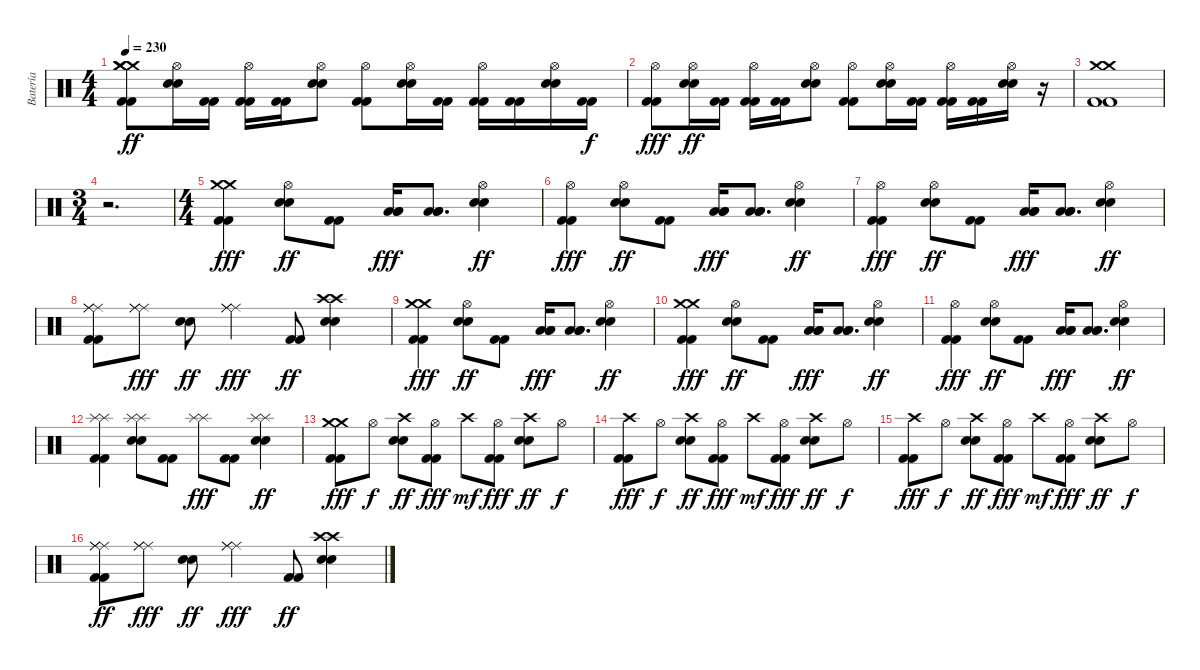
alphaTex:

\track ("Batería" "Batería") {instrument percussion}
\staff {score}
\articulation defaults
\ts (4 4)
\tempo 230
\clef neutral
\ks c
("Crash medium (hit)" "Crash medium (hit)" "Crash medium (hit)" "Kick (hit) 2" "Kick (hit) 2").8{dy ff} ("Hi-Hat (open)" "Electric Snare (hit)" "Electric Snare (hit)").16 ("Kick (hit) 2" "Kick (hit) 2").16 ("Hi-Hat (open)" "Kick (hit) 2" "Kick (hit) 2").16 ("Kick (hit) 2" "Kick (hit) 2").16 ("Hi-Hat (open)" "Electric Snare (hit)" "Electric Snare (hit)").8 ("Hi-Hat (open)" "Kick (hit) 2" "Kick (hit) 2").8 ("Hi-Hat (open)" "Electric Snare (hit)" "Electric Snare (hit)").16 ("Kick (hit) 2" "Kick (hit) 2").16 ("Hi-Hat (open)" "Kick (hit) 2" "Kick (hit) 2").16 ("Kick (hit) 2" "Kick (hit) 2").16 ("Hi-Hat (open)" "Electric Snare (hit)" "Electric Snare (hit)").16 ("Kick (hit) 2" "Kick (hit) 2").16{dy f} |
("Hi-Hat (open)" "Kick (hit) 2" "Kick (hit) 2").8{dy fff} ("Hi-Hat (open)" "Electric Snare (hit)" "Electric Snare (hit)").16{dy ff} ("Kick (hit) 2" "Kick (hit) 2").16 ("Hi-Hat (open)" "Kick (hit) 2" "Kick (hit) 2").16 ("Kick (hit) 2" "Kick (hit) 2").16 ("Hi-Hat (open)" "Electric Snare (hit)" "Electric Snare (hit)").8 ("Hi-Hat (open)" "Kick (hit) 2" "Kick (hit) 2").8 ("Hi-Hat (open)" "Electric Snare (hit)" "Electric Snare (hit)").16 ("Kick (hit) 2" "Kick (hit) 2").16 ("Hi-Hat (open)" "Kick (hit) 2" "Kick (hit) 2").16 ("Kick (hit) 2" "Kick (hit) 2").16 ("Hi-Hat (open)" "Electric Snare (hit)" "Electric Snare (hit)").16 r.16 |
("Crash medium (hit)" "Crash medium (hit)" "Kick (hit) 2" "Kick (hit) 2").1 |
\ts (3 4)
r.2{d} |
\ts (4 4)
("Crash medium (hit)" "Crash medium (hit)" "Kick (hit) 2" "Kick (hit) 2").4{dy fff} ("Hi-Hat (open)" "Electric Snare (hit)" "Electric Snare (hit)").8{dy ff} ("Kick (hit) 2" "Kick (hit) 2").8 ("Low Tom (hit)" "Low Floor Tom (hit)" "Low Floor Tom (hit)").16{dy fff} ("Low Tom (hit)" "Low Floor Tom (hit)" "Low Floor Tom (hit)").8{d} ("Hi-Hat (open)" "Electric Snare (hit)" "Electric Snare (hit)").4{dy ff} |
("Hi-Hat (open)" "Kick (hit) 2" "Kick (hit) 2").4{dy fff} ("Hi-Hat (open)" "Electric Snare (hit)" "Electric Snare (hit)").8{dy ff} ("Kick (hit) 2" "Kick (hit) 2").8 ("Low Tom (hit)" "Low Floor Tom (hit)" "Low Floor Tom (hit)").16{dy fff} ("Low Tom (hit)" "Low Floor Tom (hit)" "Low Floor Tom (hit)").8{d} ("Hi-Hat (open)" "Electric Snare (hit)" "Electric Snare (hit)").4{dy ff} |
("Hi-Hat (open)" "Kick (hit) 2" "Kick (hit) 2").4{dy fff} ("Hi-Hat (open)" "Electric Snare (hit)" "Electric Snare (hit)").8{dy ff} ("Kick (hit) 2" "Kick (hit) 2").8 ("Low Tom (hit)" "Low Floor Tom (hit)" "Low Floor Tom (hit)").16{dy fff} ("Low Tom (hit)" "Low Floor Tom (hit)" "Low Floor Tom (hit)").8{d} ("Hi-Hat (open)" "Electric Snare (hit)" "Electric Snare (hit)").4{dy ff} |
("Ride (middle)" "Ride (middle)" "Ride (middle)" "Kick (hit) 2" "Kick (hit) 2").8 ("Ride (middle)" "Ride (middle)" "Ride (middle)").8{dy fff} ("Electric Snare (hit)" "Electric Snare (hit)").8{dy ff} ("Ride (middle)" "Ride (middle)" "Ride (middle)").4{dy fff} ("Kick (hit) 2" "Kick (hit) 2").8{dy ff} ("Crash high (hit)" "Crash high (hit)" "Electric Snare (hit)" "Electric Snare (hit)").4 |
("Crash medium (hit)" "Crash medium (hit)" "Kick (hit) 2" "Kick (hit) 2").4{dy fff} ("Hi-Hat (open)" "Electric Snare (hit)" "Electric Snare (hit)").8{dy ff} ("Kick (hit) 2" "Kick (hit) 2").8 ("Low Tom (hit)" "Low Floor Tom (hit)" "Low Floor Tom (hit)").16{dy fff} ("Low Tom (hit)" "Low Floor Tom (hit)" "Low Floor Tom (hit)").8{d} ("Hi-Hat (open)" "Electric Snare (hit)" "Electric Snare (hit)").4{dy ff} |
("Crash medium (hit)" "Crash medium (hit)" "Kick (hit) 2" "Kick (hit) 2").4{dy fff} ("Hi-Hat (open)" "Electric Snare (hit)" "Electric Snare (hit)").8{dy ff} ("Kick (hit) 2" "Kick (hit) 2").8 ("Low Tom (hit)" "Low Floor Tom (hit)" "Low Floor Tom (hit)").16{dy fff} ("Low Tom (hit)" "Low Floor Tom (hit)" "Low Floor Tom (hit)").8{d} ("Hi-Hat (open)" "Electric Snare (hit)" "Electric Snare (hit)").4{dy ff} |
("Hi-Hat (open)" "Kick (hit) 2" "Kick (hit) 2").4{dy fff} ("Hi-Hat (open)" "Electric Snare (hit)" "Electric Snare (hit)").8{dy ff} ("Kick (hit) 2" "Kick (hit) 2").8 ("Low Tom (hit)" "Low Floor Tom (hit)" "Low Floor Tom (hit)").16{dy fff} ("Low Tom (hit)" "Low Floor Tom (hit)" "Low Floor Tom (hit)").8{d} ("Hi-Hat (open)" "Electric Snare (hit)" "Electric Snare (hit)").4{dy ff} |
("Splash (hit)" "Splash (hit)" "Kick (hit) 2" "Kick (hit) 2").4 ("Splash (hit)" "Splash (hit)" "Electric Snare (hit)" "Electric Snare (hit)").8 ("Kick (hit) 2" "Kick (hit) 2").8 ("Splash (hit)" "Splash (hit)").8{dy fff} ("Kick (hit) 2" "Kick (hit) 2").8 ("Splash (hit)" "Splash (hit)" "Electric Snare (hit)" "Electric Snare (hit)").4{dy ff} |
("Crash medium (hit)" "Crash medium (hit)" "Kick (hit) 2" "Kick (hit) 2").8{dy fff} "Hi-Hat (open)".8{dy f} ("Crash high (hit)" "Electric Snare (hit)" "Electric Snare (hit)").8{dy ff} ("Hi-Hat (open)" "Kick (hit) 2" "Kick (hit) 2").8{dy fff} "Crash high (hit)".8{dy mf} ("Hi-Hat (open)" "Kick (hit) 2" "Kick (hit) 2").8{dy fff} ("Crash high (hit)" "Electric Snare (hit)" "Electric Snare (hit)").8{dy ff} "Hi-Hat (open)".8{dy f} |
("Crash high (hit)" "Kick (hit) 2" "Kick (hit) 2").8{dy fff} "Hi-Hat (open)".8{dy f} ("Crash high (hit)" "Electric Snare (hit)" "Electric Snare (hit)").8{dy ff} ("Hi-Hat (open)" "Kick (hit) 2" "Kick (hit) 2").8{dy fff} "Crash high (hit)".8{dy mf} ("Hi-Hat (open)" "Kick (hit) 2" "Kick (hit) 2").8{dy fff} ("Crash high (hit)" "Electric Snare (hit)" "Electric Snare (hit)").8{dy ff} "Hi-Hat (open)".8{dy f} |
("Crash high (hit)" "Kick (hit) 2" "Kick (hit) 2").8{dy fff} "Hi-Hat (open)".8{dy f} ("Crash high (hit)" "Electric Snare (hit)" "Electric Snare (hit)").8{dy ff} ("Hi-Hat (open)" "Kick (hit) 2" "Kick (hit) 2").8{dy fff} "Crash high (hit)".8{dy mf} ("Hi-Hat (open)" "Kick (hit) 2" "Kick (hit) 2").8{dy fff} ("Crash high (hit)" "Electric Snare (hit)" "Electric Snare (hit)").8{dy ff} "Hi-Hat (open)".8{dy f} |
("Ride (middle)" "Ride (middle)" "Ride (middle)" "Kick (hit) 2" "Kick (hit) 2").8{dy ff} ("Ride (middle)" "Ride (middle)" "Ride (middle)").8{dy fff} ("Electric Snare (hit)" "Electric Snare (hit)").8{dy ff} ("Ride (middle)" "Ride (middle)" "Ride (middle)").4{dy fff} ("Kick (hit) 2" "Kick (hit) 2").8{dy ff} ("Crash high (hit)" "Crash high (hit)" "Electric Snare (hit)" "Electric Snare (hit)").4
